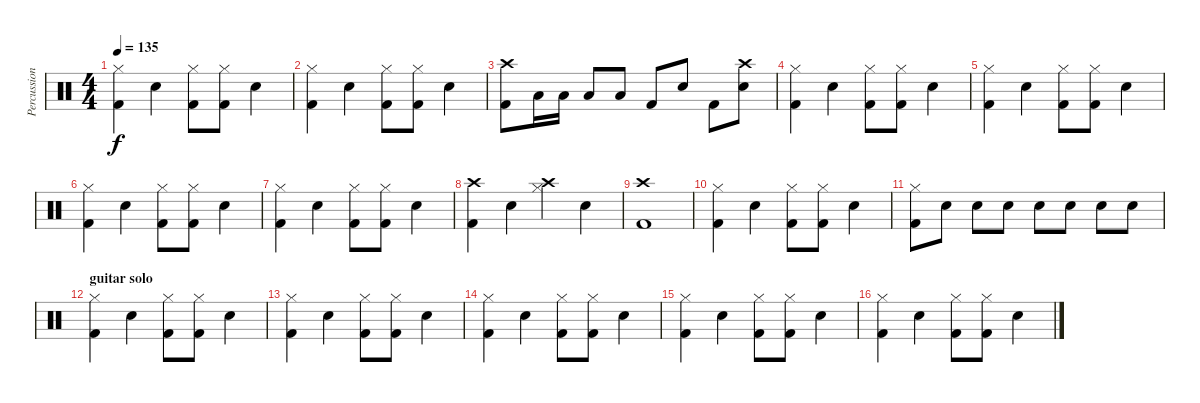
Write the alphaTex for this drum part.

\track ("Percussion" "Percussion") {instrument percussion}
\staff {score}
\articulation defaults
\ts (4 4)
\tempo 135
\clef neutral
\ks c
("Hi-Hat (closed)" "Kick (hit) 2").4{dy f} "Snare (hit) 2".4 ("Kick (hit) 2" "Hi-Hat (closed)").8 ("Kick (hit) 2" "Hi-Hat (closed)").8 "Snare (hit) 2".4 |
("Hi-Hat (closed)" "Kick (hit) 2").4 "Snare (hit) 2".4 ("Kick (hit) 2" "Hi-Hat (closed)").8 ("Kick (hit) 2" "Hi-Hat (closed)").8 "Snare (hit) 2".4 |
("Crash high (hit)" "Kick (hit) 2").8 "Low Tom (hit)".16 "Low Tom (hit)".16 "Low Tom (hit)".8 "Low Tom (hit)".8 "Kick (hit) 2".8 "Snare (hit) 2".8 "Kick (hit) 2".8 ("Snare (hit) 2" "Crash high (hit)").8 |
("Hi-Hat (closed)" "Kick (hit) 2").4 "Snare (hit) 2".4 ("Kick (hit) 2" "Hi-Hat (closed)").8 ("Kick (hit) 2" "Hi-Hat (closed)").8 "Snare (hit) 2".4 |
("Hi-Hat (closed)" "Kick (hit) 2").4 "Snare (hit) 2".4 ("Kick (hit) 2" "Hi-Hat (closed)").8 ("Kick (hit) 2" "Hi-Hat (closed)").8 "Snare (hit) 2".4 |
("Hi-Hat (closed)" "Kick (hit) 2").4 "Snare (hit) 2".4 ("Kick (hit) 2" "Hi-Hat (closed)").8 ("Kick (hit) 2" "Hi-Hat (closed)").8 "Snare (hit) 2".4 |
("Hi-Hat (closed)" "Kick (hit) 2").4 "Snare (hit) 2".4 ("Kick (hit) 2" "Hi-Hat (closed)").8 ("Kick (hit) 2" "Hi-Hat (closed)").8 "Snare (hit) 2".4 |
("Crash high (hit)" "Kick (hit) 2").4 "Snare (hit) 2".4 ("Crash high (hit)" "Hi-Hat (closed)").4 "Snare (hit) 2".4 |
("Crash high (hit)" "Kick (hit) 2").1 |
("Hi-Hat (closed)" "Kick (hit) 2").4 "Snare (hit) 2".4 ("Kick (hit) 2" "Hi-Hat (closed)").8 ("Kick (hit) 2" "Hi-Hat (closed)").8 "Snare (hit) 2".4 |
("Hi-Hat (closed)" "Kick (hit) 2").8 "Snare (hit) 2".8 "Snare (hit) 2".8 "Snare (hit) 2".8 "Snare (hit) 2".8 "Snare (hit) 2".8 "Snare (hit) 2".8 "Snare (hit) 2".8 |
\section ("" "guitar solo")
("Hi-Hat (closed)" "Kick (hit) 2").4 "Snare (hit) 2".4 ("Kick (hit) 2" "Hi-Hat (closed)").8 ("Kick (hit) 2" "Hi-Hat (closed)").8 "Snare (hit) 2".4 |
("Hi-Hat (closed)" "Kick (hit) 2").4 "Snare (hit) 2".4 ("Kick (hit) 2" "Hi-Hat (closed)").8 ("Kick (hit) 2" "Hi-Hat (closed)").8 "Snare (hit) 2".4 |
("Hi-Hat (closed)" "Kick (hit) 2").4 "Snare (hit) 2".4 ("Kick (hit) 2" "Hi-Hat (closed)").8 ("Kick (hit) 2" "Hi-Hat (closed)").8 "Snare (hit) 2".4 |
("Hi-Hat (closed)" "Kick (hit) 2").4 "Snare (hit) 2".4 ("Kick (hit) 2" "Hi-Hat (closed)").8 ("Kick (hit) 2" "Hi-Hat (closed)").8 "Snare (hit) 2".4 |
("Hi-Hat (closed)" "Kick (hit) 2").4 "Snare (hit) 2".4 ("Kick (hit) 2" "Hi-Hat (closed)").8 ("Kick (hit) 2" "Hi-Hat (closed)").8 "Snare (hit) 2".4
